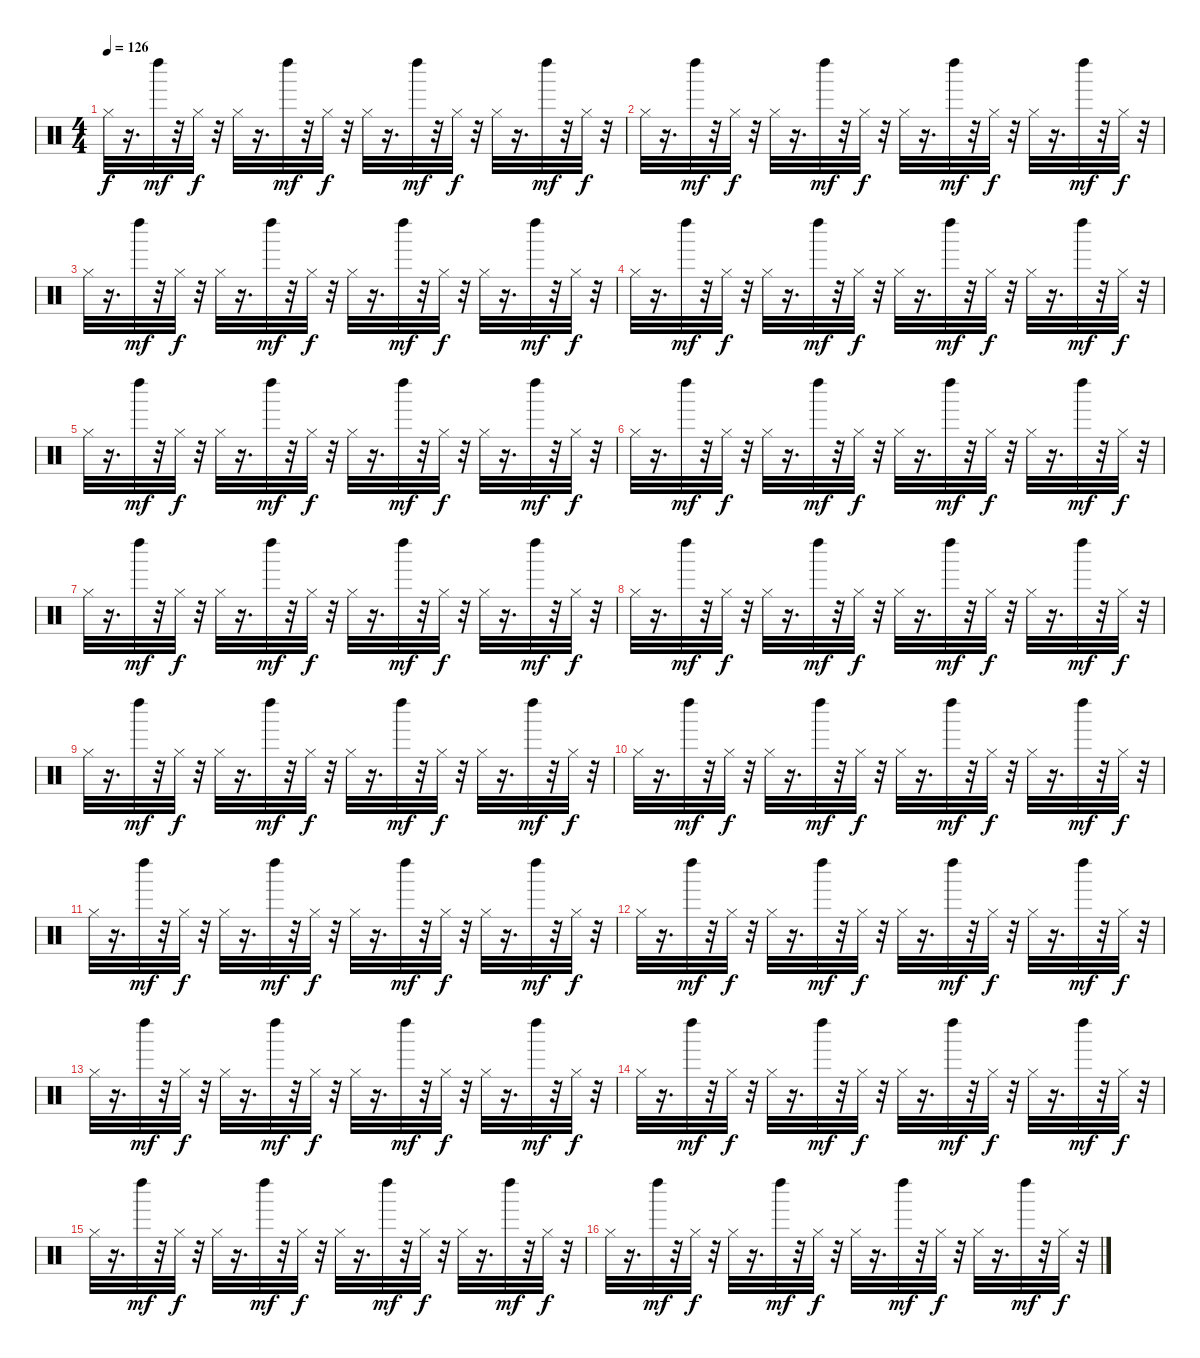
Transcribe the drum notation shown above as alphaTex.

\track "" {instrument percussion}
\staff {score}
\articulation defaults
\ts (4 4)
\tempo 126
\clef neutral
\ks c "Hi-Hat (closed)".32{dy f}
r.16{d} "Left Maraca (hit)".32{dy mf} r.32 "Hi-Hat (closed)".32{dy f} r.32 "Hi-Hat (closed)".32 r.16{d} "Left Maraca (hit)".32{dy mf} r.32 "Hi-Hat (closed)".32{dy f} r.32 "Hi-Hat (closed)".32 r.16{d} "Left Maraca (hit)".32{dy mf} r.32 "Hi-Hat (closed)".32{dy f} r.32 "Hi-Hat (closed)".32 r.16{d} "Left Maraca (hit)".32{dy mf} r.32 "Hi-Hat (closed)".32{dy f} r.32 |
"Hi-Hat (closed)".32 r.16{d} "Left Maraca (hit)".32{dy mf} r.32 "Hi-Hat (closed)".32{dy f} r.32 "Hi-Hat (closed)".32 r.16{d} "Left Maraca (hit)".32{dy mf} r.32 "Hi-Hat (closed)".32{dy f} r.32 "Hi-Hat (closed)".32 r.16{d} "Left Maraca (hit)".32{dy mf} r.32 "Hi-Hat (closed)".32{dy f} r.32 "Hi-Hat (closed)".32 r.16{d} "Left Maraca (hit)".32{dy mf} r.32 "Hi-Hat (closed)".32{dy f} r.32 |
"Hi-Hat (closed)".32 r.16{d} "Left Maraca (hit)".32{dy mf} r.32 "Hi-Hat (closed)".32{dy f} r.32 "Hi-Hat (closed)".32 r.16{d} "Left Maraca (hit)".32{dy mf} r.32 "Hi-Hat (closed)".32{dy f} r.32 "Hi-Hat (closed)".32 r.16{d} "Left Maraca (hit)".32{dy mf} r.32 "Hi-Hat (closed)".32{dy f} r.32 "Hi-Hat (closed)".32 r.16{d} "Left Maraca (hit)".32{dy mf} r.32 "Hi-Hat (closed)".32{dy f} r.32 |
"Hi-Hat (closed)".32 r.16{d} "Left Maraca (hit)".32{dy mf} r.32 "Hi-Hat (closed)".32{dy f} r.32 "Hi-Hat (closed)".32 r.16{d} "Left Maraca (hit)".32{dy mf} r.32 "Hi-Hat (closed)".32{dy f} r.32 "Hi-Hat (closed)".32 r.16{d} "Left Maraca (hit)".32{dy mf} r.32 "Hi-Hat (closed)".32{dy f} r.32 "Hi-Hat (closed)".32 r.16{d} "Left Maraca (hit)".32{dy mf} r.32 "Hi-Hat (closed)".32{dy f} r.32 |
"Hi-Hat (closed)".32 r.16{d} "Left Maraca (hit)".32{dy mf} r.32 "Hi-Hat (closed)".32{dy f} r.32 "Hi-Hat (closed)".32 r.16{d} "Left Maraca (hit)".32{dy mf} r.32 "Hi-Hat (closed)".32{dy f} r.32 "Hi-Hat (closed)".32 r.16{d} "Left Maraca (hit)".32{dy mf} r.32 "Hi-Hat (closed)".32{dy f} r.32 "Hi-Hat (closed)".32 r.16{d} "Left Maraca (hit)".32{dy mf} r.32 "Hi-Hat (closed)".32{dy f} r.32 |
"Hi-Hat (closed)".32 r.16{d} "Left Maraca (hit)".32{dy mf} r.32 "Hi-Hat (closed)".32{dy f} r.32 "Hi-Hat (closed)".32 r.16{d} "Left Maraca (hit)".32{dy mf} r.32 "Hi-Hat (closed)".32{dy f} r.32 "Hi-Hat (closed)".32 r.16{d} "Left Maraca (hit)".32{dy mf} r.32 "Hi-Hat (closed)".32{dy f} r.32 "Hi-Hat (closed)".32 r.16{d} "Left Maraca (hit)".32{dy mf} r.32 "Hi-Hat (closed)".32{dy f} r.32 |
"Hi-Hat (closed)".32 r.16{d} "Left Maraca (hit)".32{dy mf} r.32 "Hi-Hat (closed)".32{dy f} r.32 "Hi-Hat (closed)".32 r.16{d} "Left Maraca (hit)".32{dy mf} r.32 "Hi-Hat (closed)".32{dy f} r.32 "Hi-Hat (closed)".32 r.16{d} "Left Maraca (hit)".32{dy mf} r.32 "Hi-Hat (closed)".32{dy f} r.32 "Hi-Hat (closed)".32 r.16{d} "Left Maraca (hit)".32{dy mf} r.32 "Hi-Hat (closed)".32{dy f} r.32 |
"Hi-Hat (closed)".32 r.16{d} "Left Maraca (hit)".32{dy mf} r.32 "Hi-Hat (closed)".32{dy f} r.32 "Hi-Hat (closed)".32 r.16{d} "Left Maraca (hit)".32{dy mf} r.32 "Hi-Hat (closed)".32{dy f} r.32 "Hi-Hat (closed)".32 r.16{d} "Left Maraca (hit)".32{dy mf} r.32 "Hi-Hat (closed)".32{dy f} r.32 "Hi-Hat (closed)".32 r.16{d} "Left Maraca (hit)".32{dy mf} r.32 "Hi-Hat (closed)".32{dy f} r.32 |
"Hi-Hat (closed)".32 r.16{d} "Left Maraca (hit)".32{dy mf} r.32 "Hi-Hat (closed)".32{dy f} r.32 "Hi-Hat (closed)".32 r.16{d} "Left Maraca (hit)".32{dy mf} r.32 "Hi-Hat (closed)".32{dy f} r.32 "Hi-Hat (closed)".32 r.16{d} "Left Maraca (hit)".32{dy mf} r.32 "Hi-Hat (closed)".32{dy f} r.32 "Hi-Hat (closed)".32 r.16{d} "Left Maraca (hit)".32{dy mf} r.32 "Hi-Hat (closed)".32{dy f} r.32 |
"Hi-Hat (closed)".32 r.16{d} "Left Maraca (hit)".32{dy mf} r.32 "Hi-Hat (closed)".32{dy f} r.32 "Hi-Hat (closed)".32 r.16{d} "Left Maraca (hit)".32{dy mf} r.32 "Hi-Hat (closed)".32{dy f} r.32 "Hi-Hat (closed)".32 r.16{d} "Left Maraca (hit)".32{dy mf} r.32 "Hi-Hat (closed)".32{dy f} r.32 "Hi-Hat (closed)".32 r.16{d} "Left Maraca (hit)".32{dy mf} r.32 "Hi-Hat (closed)".32{dy f} r.32 |
"Hi-Hat (closed)".32 r.16{d} "Left Maraca (hit)".32{dy mf} r.32 "Hi-Hat (closed)".32{dy f} r.32 "Hi-Hat (closed)".32 r.16{d} "Left Maraca (hit)".32{dy mf} r.32 "Hi-Hat (closed)".32{dy f} r.32 "Hi-Hat (closed)".32 r.16{d} "Left Maraca (hit)".32{dy mf} r.32 "Hi-Hat (closed)".32{dy f} r.32 "Hi-Hat (closed)".32 r.16{d} "Left Maraca (hit)".32{dy mf} r.32 "Hi-Hat (closed)".32{dy f} r.32 |
"Hi-Hat (closed)".32 r.16{d} "Left Maraca (hit)".32{dy mf} r.32 "Hi-Hat (closed)".32{dy f} r.32 "Hi-Hat (closed)".32 r.16{d} "Left Maraca (hit)".32{dy mf} r.32 "Hi-Hat (closed)".32{dy f} r.32 "Hi-Hat (closed)".32 r.16{d} "Left Maraca (hit)".32{dy mf} r.32 "Hi-Hat (closed)".32{dy f} r.32 "Hi-Hat (closed)".32 r.16{d} "Left Maraca (hit)".32{dy mf} r.32 "Hi-Hat (closed)".32{dy f} r.32 |
"Hi-Hat (closed)".32 r.16{d} "Left Maraca (hit)".32{dy mf} r.32 "Hi-Hat (closed)".32{dy f} r.32 "Hi-Hat (closed)".32 r.16{d} "Left Maraca (hit)".32{dy mf} r.32 "Hi-Hat (closed)".32{dy f} r.32 "Hi-Hat (closed)".32 r.16{d} "Left Maraca (hit)".32{dy mf} r.32 "Hi-Hat (closed)".32{dy f} r.32 "Hi-Hat (closed)".32 r.16{d} "Left Maraca (hit)".32{dy mf} r.32 "Hi-Hat (closed)".32{dy f} r.32 |
"Hi-Hat (closed)".32 r.16{d} "Left Maraca (hit)".32{dy mf} r.32 "Hi-Hat (closed)".32{dy f} r.32 "Hi-Hat (closed)".32 r.16{d} "Left Maraca (hit)".32{dy mf} r.32 "Hi-Hat (closed)".32{dy f} r.32 "Hi-Hat (closed)".32 r.16{d} "Left Maraca (hit)".32{dy mf} r.32 "Hi-Hat (closed)".32{dy f} r.32 "Hi-Hat (closed)".32 r.16{d} "Left Maraca (hit)".32{dy mf} r.32 "Hi-Hat (closed)".32{dy f} r.32 |
"Hi-Hat (closed)".32 r.16{d} "Left Maraca (hit)".32{dy mf} r.32 "Hi-Hat (closed)".32{dy f} r.32 "Hi-Hat (closed)".32 r.16{d} "Left Maraca (hit)".32{dy mf} r.32 "Hi-Hat (closed)".32{dy f} r.32 "Hi-Hat (closed)".32 r.16{d} "Left Maraca (hit)".32{dy mf} r.32 "Hi-Hat (closed)".32{dy f} r.32 "Hi-Hat (closed)".32 r.16{d} "Left Maraca (hit)".32{dy mf} r.32 "Hi-Hat (closed)".32{dy f} r.32 |
"Hi-Hat (closed)".32 r.16{d} "Left Maraca (hit)".32{dy mf} r.32 "Hi-Hat (closed)".32{dy f} r.32 "Hi-Hat (closed)".32 r.16{d} "Left Maraca (hit)".32{dy mf} r.32 "Hi-Hat (closed)".32{dy f} r.32 "Hi-Hat (closed)".32 r.16{d} "Left Maraca (hit)".32{dy mf} r.32 "Hi-Hat (closed)".32{dy f} r.32 "Hi-Hat (closed)".32 r.16{d} "Left Maraca (hit)".32{dy mf} r.32 "Hi-Hat (closed)".32{dy f} r.32
